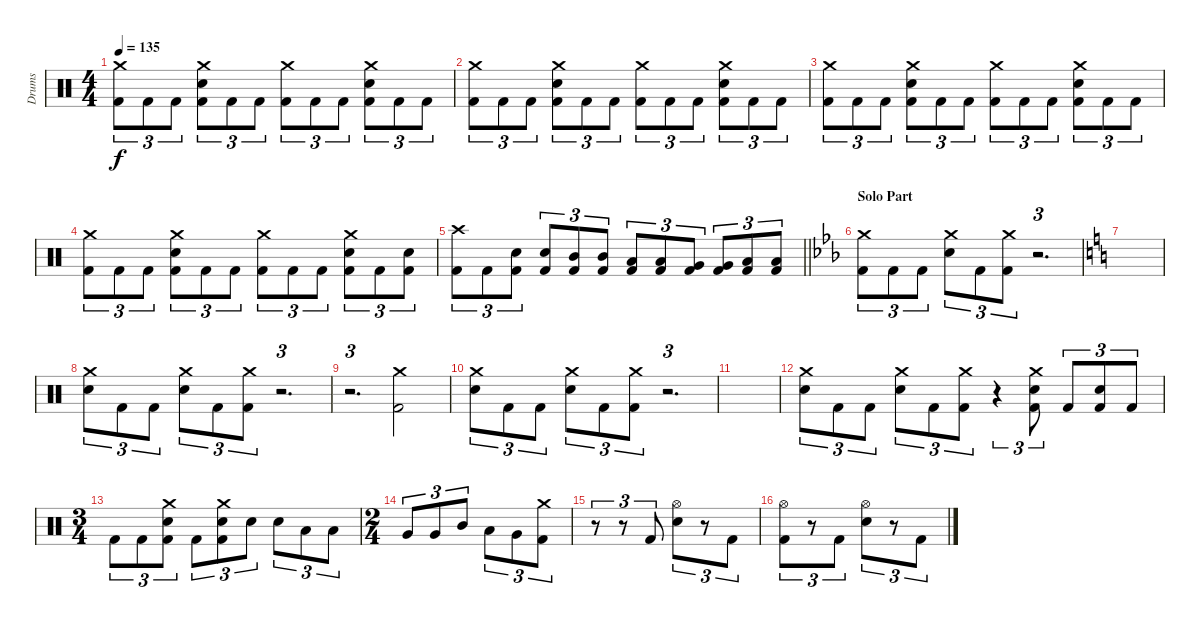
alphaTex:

\track ("Drums" "Drums") {instrument percussion}
\staff {score}
\articulation defaults
\ts (4 4)
\tempo 135
\clef neutral
\ks c
("Crash medium (hit)" "Kick (hit) 2").8{tu (3 2) dy f} "Kick (hit) 2".8{tu (3 2)} "Kick (hit) 2".8{tu (3 2)} ("Crash medium (hit)" "Electric Snare (hit)" "Kick (hit) 2").8{tu (3 2)} "Kick (hit) 2".8{tu (3 2)} "Kick (hit) 2".8{tu (3 2)} ("Crash medium (hit)" "Kick (hit) 2").8{tu (3 2)} "Kick (hit) 2".8{tu (3 2)} "Kick (hit) 2".8{tu (3 2)} ("Crash medium (hit)" "Electric Snare (hit)" "Kick (hit) 2").8{tu (3 2)} "Kick (hit) 2".8{tu (3 2)} "Kick (hit) 2".8{tu (3 2)} |
("Crash medium (hit)" "Kick (hit) 2").8{tu (3 2)} "Kick (hit) 2".8{tu (3 2)} "Kick (hit) 2".8{tu (3 2)} ("Crash medium (hit)" "Electric Snare (hit)" "Kick (hit) 2").8{tu (3 2)} "Kick (hit) 2".8{tu (3 2)} "Kick (hit) 2".8{tu (3 2)} ("Crash medium (hit)" "Kick (hit) 2").8{tu (3 2)} "Kick (hit) 2".8{tu (3 2)} "Kick (hit) 2".8{tu (3 2)} ("Crash medium (hit)" "Electric Snare (hit)" "Kick (hit) 2").8{tu (3 2)} "Kick (hit) 2".8{tu (3 2)} "Kick (hit) 2".8{tu (3 2)} |
("Crash medium (hit)" "Kick (hit) 2").8{tu (3 2)} "Kick (hit) 2".8{tu (3 2)} "Kick (hit) 2".8{tu (3 2)} ("Crash medium (hit)" "Electric Snare (hit)" "Kick (hit) 2").8{tu (3 2)} "Kick (hit) 2".8{tu (3 2)} "Kick (hit) 2".8{tu (3 2)} ("Crash medium (hit)" "Kick (hit) 2").8{tu (3 2)} "Kick (hit) 2".8{tu (3 2)} "Kick (hit) 2".8{tu (3 2)} ("Crash medium (hit)" "Electric Snare (hit)" "Kick (hit) 2").8{tu (3 2)} "Kick (hit) 2".8{tu (3 2)} "Kick (hit) 2".8{tu (3 2)} |
("Crash medium (hit)" "Kick (hit) 2").8{tu (3 2)} "Kick (hit) 2".8{tu (3 2)} "Kick (hit) 2".8{tu (3 2)} ("Crash medium (hit)" "Electric Snare (hit)" "Kick (hit) 2").8{tu (3 2)} "Kick (hit) 2".8{tu (3 2)} "Kick (hit) 2".8{tu (3 2)} ("Crash medium (hit)" "Kick (hit) 2").8{tu (3 2)} "Kick (hit) 2".8{tu (3 2)} "Kick (hit) 2".8{tu (3 2)} ("Crash medium (hit)" "Electric Snare (hit)" "Kick (hit) 2").8{tu (3 2)} "Kick (hit) 2".8{tu (3 2)} ("Electric Snare (hit)" "Kick (hit) 2").8{tu (3 2)} |
\barLineRight lightlight
("Crash high (hit)" "Kick (hit) 2").8{tu (3 2)} "Kick (hit) 2".8{tu (3 2)} ("Electric Snare (hit)" "Kick (hit) 2").8{tu (3 2)} ("Electric Snare (hit)" "Kick (hit) 2").8{tu (3 2)} ("Mid Tom (hit)" "Kick (hit) 2").8{tu (3 2)} ("Mid Tom (hit)" "Kick (hit) 2").8{tu (3 2)} ("Low Tom (hit)" "Kick (hit) 2").8{tu (3 2)} ("Low Tom (hit)" "Kick (hit) 2").8{tu (3 2)} ("Very Low Tom (hit)" "Kick (hit) 2").8{tu (3 2)} ("Very Low Tom (hit)" "Kick (hit) 2").8{tu (3 2)} ("Low Floor Tom (hit)" "Kick (hit) 2").8{tu (3 2)} ("Low Floor Tom (hit)" "Kick (hit) 2").8{tu (3 2)} |
\section ("" "Solo Part")
\ks eb
("Crash medium (hit)" "Kick (hit) 2").8{tu (3 2)} "Kick (hit) 2".8{tu (3 2)} "Kick (hit) 2".8{tu (3 2)} ("Crash medium (hit)" "Electric Snare (hit)").8{tu (3 2)} "Kick (hit) 2".8{tu (3 2)} ("Crash medium (hit)" "Kick (hit) 2").8{tu (3 2)} r.2{d tu (3 2)} |
\ks c
|
("Crash medium (hit)" "Electric Snare (hit)").8{tu (3 2)} "Kick (hit) 2".8{tu (3 2)} "Kick (hit) 2".8{tu (3 2)} ("Crash medium (hit)" "Electric Snare (hit)").8{tu (3 2)} "Kick (hit) 2".8{tu (3 2)} ("Crash medium (hit)" "Kick (hit) 2").8{tu (3 2)} r.2{d tu (3 2)} |
r.2{d tu (3 2)} ("Crash medium (hit)" "Kick (hit) 2").2 |
("Crash medium (hit)" "Electric Snare (hit)").8{tu (3 2)} "Kick (hit) 2".8{tu (3 2)} "Kick (hit) 2".8{tu (3 2)} ("Crash medium (hit)" "Electric Snare (hit)").8{tu (3 2)} "Kick (hit) 2".8{tu (3 2)} ("Crash medium (hit)" "Kick (hit) 2").8{tu (3 2)} r.2{d tu (3 2)} |
|
("Crash medium (hit)" "Electric Snare (hit)").8{tu (3 2)} "Kick (hit) 2".8{tu (3 2)} "Kick (hit) 2".8{tu (3 2)} ("Crash medium (hit)" "Electric Snare (hit)").8{tu (3 2)} "Kick (hit) 2".8{tu (3 2)} ("Crash medium (hit)" "Kick (hit) 2").8{tu (3 2)} r.4{tu (3 2)} ("Crash medium (hit)" "Electric Snare (hit)" "Kick (hit) 2").8{tu (3 2)} "Kick (hit) 2".8{tu (3 2)} ("Electric Snare (hit)" "Kick (hit) 2").8{tu (3 2)} "Kick (hit) 2".8{tu (3 2)} |
\ts (3 4)
"Kick (hit) 2".8{tu (3 2)} "Kick (hit) 2".8{tu (3 2)} ("Crash medium (hit)" "Electric Snare (hit)" "Kick (hit) 2").8{tu (3 2)} "Kick (hit) 2".8{tu (3 2)} ("Crash medium (hit)" "Electric Snare (hit)" "Kick (hit) 2").8{tu (3 2)} "Electric Snare (hit)".8{tu (3 2)} "Electric Snare (hit)".8{tu (3 2)} "Low Tom (hit)".8{tu (3 2)} "Low Tom (hit)".8{tu (3 2)} |
\ts (2 4)
"Very Low Tom (hit)".8{tu (3 2)} "Very Low Tom (hit)".8{tu (3 2)} "Mid Tom (hit)".8{tu (3 2)} "Low Tom (hit)".8{tu (3 2)} "Very Low Tom (hit)".8{tu (3 2)} ("Crash medium (hit)" "Kick (hit) 2").8{tu (3 2)} |
r.8{tu (3 2)} r.8{tu (3 2)} "Kick (hit) 2".8{tu (3 2)} ("Hi-Hat (open)" "Electric Snare (hit)").8{tu (3 2)} r.8{tu (3 2)} "Kick (hit) 2".8{tu (3 2)} |
("Hi-Hat (open)" "Kick (hit) 2").8{tu (3 2)} r.8{tu (3 2)} "Kick (hit) 2".8{tu (3 2)} ("Hi-Hat (open)" "Electric Snare (hit)").8{tu (3 2)} r.8{tu (3 2)} "Kick (hit) 2".8{tu (3 2)}
